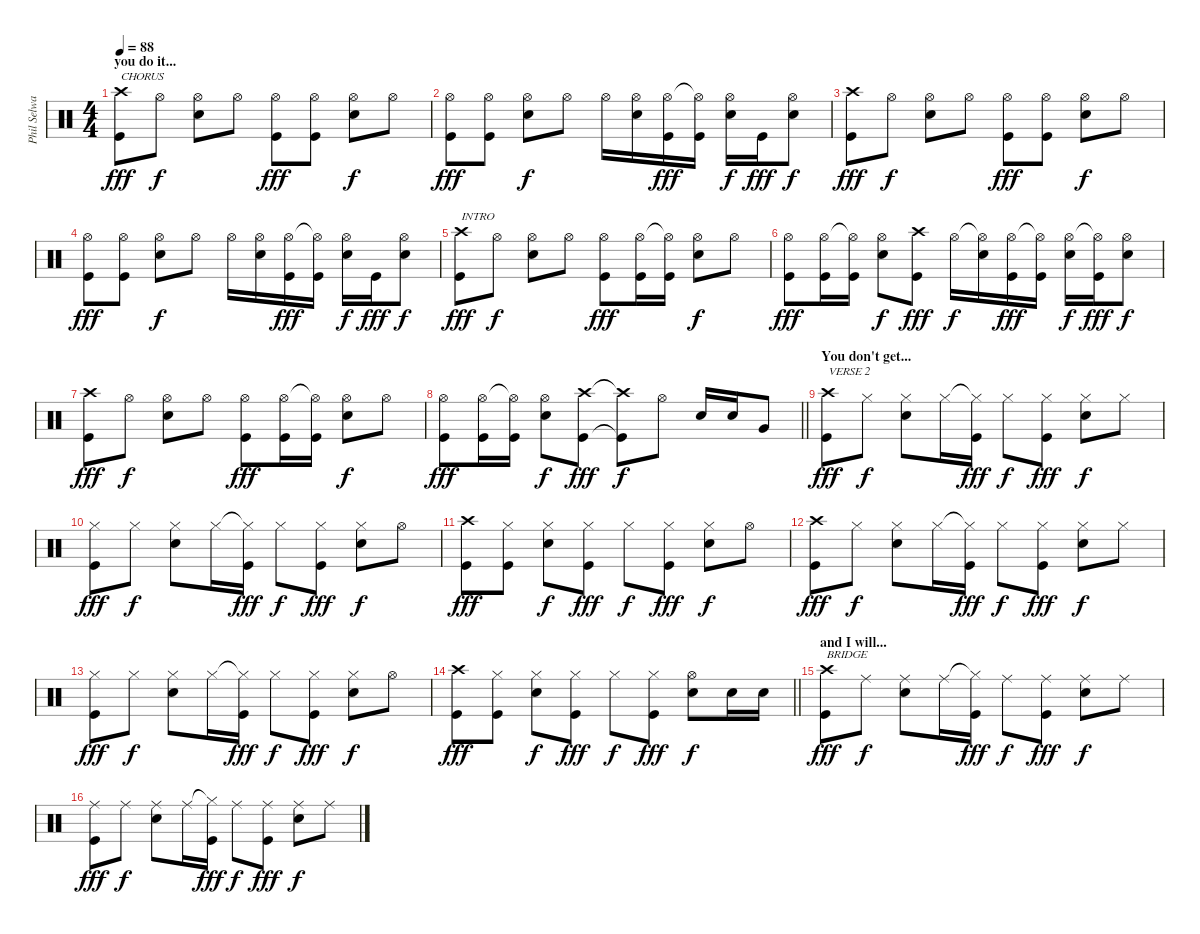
\track ("Phil Selway" "Phil Selwa") {instrument percussion}
\staff {score}
\articulation defaults
\ts (4 4)
\section ("" "you do it...")
\tempo 88
\clef neutral
\ks c
("Crash high (hit)" "Kick (hit)").8{txt "CHORUS" dy fff} "Hi-Hat (open)".8{dy f} ("Hi-Hat (open)" "Snare (hit) 2").8 "Hi-Hat (open)".8 ("Hi-Hat (open)" "Kick (hit)").8{dy fff} ("Hi-Hat (open)" "Kick (hit)").8 ("Hi-Hat (open)" "Snare (hit) 2").8{dy f} "Hi-Hat (open)".8 |
("Hi-Hat (open)" "Kick (hit)").8{dy fff} ("Hi-Hat (open)" "Kick (hit)").8 ("Hi-Hat (open)" "Snare (hit) 2").8{dy f} "Hi-Hat (open)".8 "Hi-Hat (open)".16 ("Hi-Hat (open)" "Snare (hit) 2").16 ("Hi-Hat (open)" "Kick (hit)").16{dy fff} ("Hi-Hat (open)"{t} "Kick (hit)").16 ("Hi-Hat (open)" "Snare (hit) 2").16{dy f} "Kick (hit)".16{dy fff} ("Hi-Hat (open)" "Snare (hit) 2").8{dy f} |
("Crash high (hit)" "Kick (hit)").8{dy fff} "Hi-Hat (open)".8{dy f} ("Hi-Hat (open)" "Snare (hit) 2").8 "Hi-Hat (open)".8 ("Hi-Hat (open)" "Kick (hit)").8{dy fff} ("Hi-Hat (open)" "Kick (hit)").8 ("Hi-Hat (open)" "Snare (hit) 2").8{dy f} "Hi-Hat (open)".8 |
("Hi-Hat (open)" "Kick (hit)").8{dy fff} ("Hi-Hat (open)" "Kick (hit)").8 ("Hi-Hat (open)" "Snare (hit) 2").8{dy f} "Hi-Hat (open)".8 "Hi-Hat (open)".16 ("Hi-Hat (open)" "Snare (hit) 2").16 ("Hi-Hat (open)" "Kick (hit)").16{dy fff} ("Hi-Hat (open)"{t} "Kick (hit)").16 ("Hi-Hat (open)" "Snare (hit) 2").16{dy f} "Kick (hit)".16{dy fff} ("Hi-Hat (open)" "Snare (hit) 2").8{dy f} |
("Crash high (hit)" "Kick (hit)").8{txt "INTRO" dy fff} "Hi-Hat (open)".8{dy f} ("Hi-Hat (open)" "Snare (hit) 2").8 "Hi-Hat (open)".8 ("Hi-Hat (open)" "Kick (hit)").8{dy fff} ("Hi-Hat (open)" "Kick (hit)").16 ("Hi-Hat (open)"{t} "Kick (hit)").16 ("Hi-Hat (open)" "Snare (hit) 2").8{dy f} "Hi-Hat (open)".8 |
("Hi-Hat (open)" "Kick (hit)").8{dy fff} ("Hi-Hat (open)" "Kick (hit)").16 ("Hi-Hat (open)"{t} "Kick (hit)").16 ("Hi-Hat (open)" "Snare (hit) 2").8{dy f} ("Crash high (hit)" "Kick (hit)").8{dy fff} "Hi-Hat (open)".16{dy f} ("Hi-Hat (open)"{t} "Snare (hit) 2").16 ("Hi-Hat (open)" "Kick (hit)").16{dy fff} ("Hi-Hat (open)"{t} "Kick (hit)").16 ("Hi-Hat (open)" "Snare (hit) 2").16{dy f} ("Hi-Hat (open)"{t} "Kick (hit)").16{dy fff} ("Hi-Hat (open)" "Snare (hit) 2").8{dy f} |
("Crash high (hit)" "Kick (hit)").8{dy fff} "Hi-Hat (open)".8{dy f} ("Hi-Hat (open)" "Snare (hit) 2").8 "Hi-Hat (open)".8 ("Hi-Hat (open)" "Kick (hit)").8{dy fff} ("Hi-Hat (open)" "Kick (hit)").16 ("Hi-Hat (open)"{t} "Kick (hit)").16 ("Hi-Hat (open)" "Snare (hit) 2").8{dy f} "Hi-Hat (open)".8 |
\barLineRight lightlight
("Hi-Hat (open)" "Kick (hit)").8{dy fff} ("Hi-Hat (open)" "Kick (hit)").16 ("Hi-Hat (open)"{t} "Kick (hit)").16 ("Hi-Hat (open)" "Snare (hit) 2").8{dy f} ("Crash high (hit)" "Kick (hit)").8{dy fff} ("Crash high (hit)"{t} "Kick (hit)"{t}).8{dy f} "Hi-Hat (open)".8 "Snare (hit) 2".16 "Snare (hit) 2".16 "Very Low Tom (hit)".8 |
\section ("" "You don't get...")
("Crash high (hit)" "Kick (hit)").8{txt "VERSE 2" dy fff} "Hi-Hat (closed)".8{dy f} ("Hi-Hat (closed)" "Snare (hit) 2").8 "Hi-Hat (closed)".16 ("Hi-Hat (closed)"{t} "Kick (hit)").16{dy fff} "Hi-Hat (closed)".8{dy f} ("Hi-Hat (closed)" "Kick (hit)").8{dy fff} ("Hi-Hat (closed)" "Snare (hit) 2").8{dy f} "Hi-Hat (closed)".8 |
("Hi-Hat (closed)" "Kick (hit)").8{dy fff} "Hi-Hat (closed)".8{dy f} ("Hi-Hat (closed)" "Snare (hit) 2").8 "Hi-Hat (closed)".16 ("Hi-Hat (closed)"{t} "Kick (hit)").16{dy fff} "Hi-Hat (closed)".8{dy f} ("Hi-Hat (closed)" "Kick (hit)").8{dy fff} ("Hi-Hat (closed)" "Snare (hit) 2").8{dy f} "Hi-Hat (open)".8 |
("Crash high (hit)" "Kick (hit)").8{dy fff} ("Hi-Hat (closed)" "Kick (hit)").8 ("Hi-Hat (closed)" "Snare (hit) 2").8{dy f} ("Hi-Hat (closed)" "Kick (hit)").8{dy fff} "Hi-Hat (closed)".8{dy f} ("Hi-Hat (closed)" "Kick (hit)").8{dy fff} ("Hi-Hat (closed)" "Snare (hit) 2").8{dy f} "Hi-Hat (open)".8 |
("Crash high (hit)" "Kick (hit)").8{dy fff} "Hi-Hat (closed)".8{dy f} ("Hi-Hat (closed)" "Snare (hit) 2").8 "Hi-Hat (closed)".16 ("Hi-Hat (closed)"{t} "Kick (hit)").16{dy fff} "Hi-Hat (closed)".8{dy f} ("Hi-Hat (closed)" "Kick (hit)").8{dy fff} ("Hi-Hat (closed)" "Snare (hit) 2").8{dy f} "Hi-Hat (closed)".8 |
("Hi-Hat (closed)" "Kick (hit)").8{dy fff} "Hi-Hat (closed)".8{dy f} ("Hi-Hat (closed)" "Snare (hit) 2").8 "Hi-Hat (closed)".16 ("Hi-Hat (closed)"{t} "Kick (hit)").16{dy fff} "Hi-Hat (closed)".8{dy f} ("Hi-Hat (closed)" "Kick (hit)").8{dy fff} ("Hi-Hat (closed)" "Snare (hit) 2").8{dy f} "Hi-Hat (open)".8 |
\barLineRight lightlight
("Crash high (hit)" "Kick (hit)").8{dy fff} ("Hi-Hat (closed)" "Kick (hit)").8 ("Hi-Hat (closed)" "Snare (hit) 2").8{dy f} ("Hi-Hat (closed)" "Kick (hit)").8{dy fff} "Hi-Hat (closed)".8{dy f} ("Hi-Hat (closed)" "Kick (hit)").8{dy fff} ("Hi-Hat (open)" "Snare (hit) 2").8{dy f} "Snare (hit) 2".16 "Snare (hit) 2".16 |
\section ("" "and I will...")
("Crash high (hit)" "Kick (hit)").8{txt "BRIDGE" dy fff} "Ride (middle)".8{dy f} ("Ride (middle)" "Snare (hit) 2").8 "Ride (middle)".16 ("Hi-Hat (closed)"{t} "Kick (hit)").16{dy fff} "Ride (middle)".8{dy f} ("Ride (middle)" "Kick (hit)").8{dy fff} ("Ride (middle)" "Snare (hit) 2").8{dy f} "Ride (middle)".8 |
("Ride (middle)" "Kick (hit)").8{dy fff} "Ride (middle)".8{dy f} ("Ride (middle)" "Snare (hit) 2").8 "Ride (middle)".16 ("Hi-Hat (closed)"{t} "Kick (hit)").16{dy fff} "Ride (middle)".8{dy f} ("Ride (middle)" "Kick (hit)").8{dy fff} ("Ride (middle)" "Snare (hit) 2").8{dy f} "Ride (middle)".8
